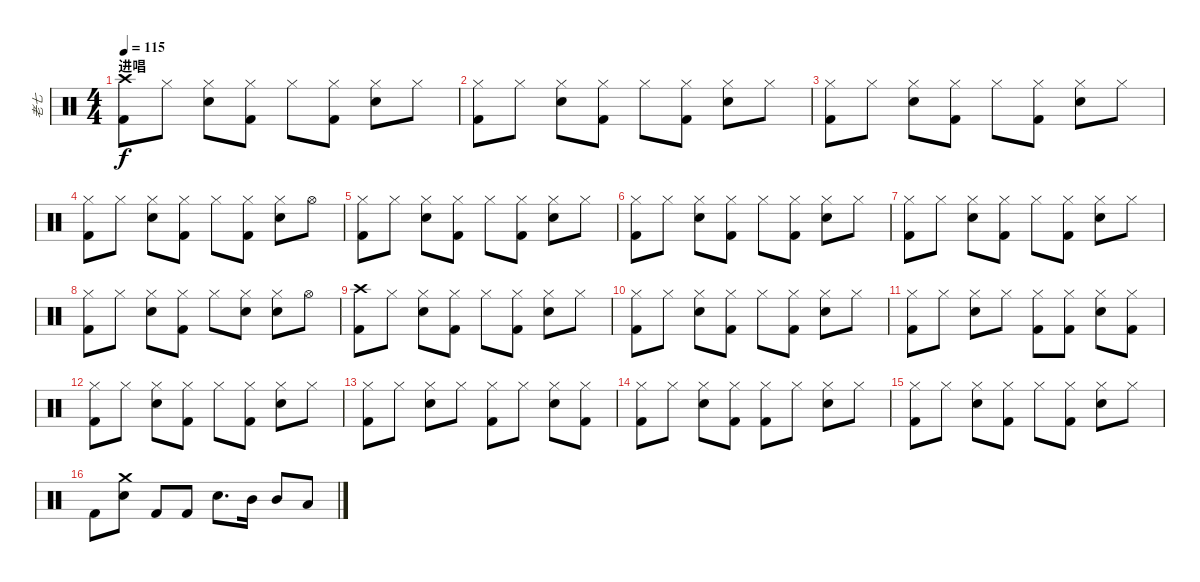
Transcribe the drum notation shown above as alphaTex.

\track ("老七" "老七") {instrument percussion}
\staff {score}
\articulation defaults
\ts (4 4)
\section ("" "进唱")
\tempo 115
\clef neutral
\ks c
("Crash high (hit)" "Kick (hit) 2").8{dy f} "Hi-Hat (closed)".8 ("Hi-Hat (closed)" "Electric Snare (hit)").8 ("Hi-Hat (closed)" "Kick (hit) 2").8 "Hi-Hat (closed)".8 ("Hi-Hat (closed)" "Kick (hit) 2").8 ("Hi-Hat (closed)" "Electric Snare (hit)").8 "Hi-Hat (closed)".8 |
("Hi-Hat (closed)" "Kick (hit) 2").8 "Hi-Hat (closed)".8 ("Hi-Hat (closed)" "Electric Snare (hit)").8 ("Hi-Hat (closed)" "Kick (hit) 2").8 "Hi-Hat (closed)".8 ("Hi-Hat (closed)" "Kick (hit) 2").8 ("Hi-Hat (closed)" "Electric Snare (hit)").8 "Hi-Hat (closed)".8 |
("Hi-Hat (closed)" "Kick (hit) 2").8 "Hi-Hat (closed)".8 ("Hi-Hat (closed)" "Electric Snare (hit)").8 ("Hi-Hat (closed)" "Kick (hit) 2").8 "Hi-Hat (closed)".8 ("Hi-Hat (closed)" "Kick (hit) 2").8 ("Hi-Hat (closed)" "Electric Snare (hit)").8 "Hi-Hat (closed)".8 |
("Hi-Hat (closed)" "Kick (hit) 2").8 "Hi-Hat (closed)".8 ("Hi-Hat (closed)" "Electric Snare (hit)").8 ("Hi-Hat (closed)" "Kick (hit) 2").8 "Hi-Hat (closed)".8 ("Hi-Hat (closed)" "Kick (hit) 2").8 ("Hi-Hat (closed)" "Electric Snare (hit)").8 "Hi-Hat (open)".8 |
("Hi-Hat (closed)" "Kick (hit) 2").8 "Hi-Hat (closed)".8 ("Hi-Hat (closed)" "Electric Snare (hit)").8 ("Hi-Hat (closed)" "Kick (hit) 2").8 "Hi-Hat (closed)".8 ("Hi-Hat (closed)" "Kick (hit) 2").8 ("Hi-Hat (closed)" "Electric Snare (hit)").8 "Hi-Hat (closed)".8 |
("Hi-Hat (closed)" "Kick (hit) 2").8 "Hi-Hat (closed)".8 ("Hi-Hat (closed)" "Electric Snare (hit)").8 ("Hi-Hat (closed)" "Kick (hit) 2").8 "Hi-Hat (closed)".8 ("Hi-Hat (closed)" "Kick (hit) 2").8 ("Hi-Hat (closed)" "Electric Snare (hit)").8 "Hi-Hat (closed)".8 |
("Hi-Hat (closed)" "Kick (hit) 2").8 "Hi-Hat (closed)".8 ("Hi-Hat (closed)" "Electric Snare (hit)").8 ("Hi-Hat (closed)" "Kick (hit) 2").8 "Hi-Hat (closed)".8 ("Hi-Hat (closed)" "Kick (hit) 2").8 ("Hi-Hat (closed)" "Electric Snare (hit)").8 "Hi-Hat (closed)".8 |
("Hi-Hat (closed)" "Kick (hit) 2").8 "Hi-Hat (closed)".8 ("Hi-Hat (closed)" "Electric Snare (hit)").8 ("Hi-Hat (closed)" "Kick (hit) 2").8 "Hi-Hat (closed)".8 ("Hi-Hat (closed)" "Electric Snare (hit)").8 ("Hi-Hat (closed)" "Electric Snare (hit)").8 "Hi-Hat (open)".8 |
("Crash high (hit)" "Kick (hit) 2").8 "Hi-Hat (closed)".8 ("Hi-Hat (closed)" "Electric Snare (hit)").8 ("Hi-Hat (closed)" "Kick (hit) 2").8 "Hi-Hat (closed)".8 ("Hi-Hat (closed)" "Kick (hit) 2").8 ("Hi-Hat (closed)" "Electric Snare (hit)").8 "Hi-Hat (closed)".8 |
("Hi-Hat (closed)" "Kick (hit) 2").8 "Hi-Hat (closed)".8 ("Hi-Hat (closed)" "Electric Snare (hit)").8 ("Hi-Hat (closed)" "Kick (hit) 2").8 "Hi-Hat (closed)".8 ("Hi-Hat (closed)" "Kick (hit) 2").8 ("Hi-Hat (closed)" "Electric Snare (hit)").8 "Hi-Hat (closed)".8 |
("Hi-Hat (closed)" "Kick (hit) 2").8 "Hi-Hat (closed)".8 ("Hi-Hat (closed)" "Electric Snare (hit)").8 "Hi-Hat (closed)".8 ("Hi-Hat (closed)" "Kick (hit) 2").8 ("Hi-Hat (closed)" "Kick (hit) 2").8 ("Hi-Hat (closed)" "Electric Snare (hit)").8 ("Hi-Hat (closed)" "Kick (hit) 2").8 |
("Hi-Hat (closed)" "Kick (hit) 2").8 "Hi-Hat (closed)".8 ("Hi-Hat (closed)" "Electric Snare (hit)").8 ("Hi-Hat (closed)" "Kick (hit) 2").8 "Hi-Hat (closed)".8 ("Hi-Hat (closed)" "Kick (hit) 2").8 ("Hi-Hat (closed)" "Electric Snare (hit)").8 "Hi-Hat (closed)".8 |
("Hi-Hat (closed)" "Kick (hit) 2").8 "Hi-Hat (closed)".8 ("Hi-Hat (closed)" "Electric Snare (hit)").8 "Hi-Hat (closed)".8 ("Hi-Hat (closed)" "Kick (hit) 2").8 "Hi-Hat (closed)".8 ("Hi-Hat (closed)" "Electric Snare (hit)").8 ("Hi-Hat (closed)" "Kick (hit) 2").8 |
("Hi-Hat (closed)" "Kick (hit) 2").8 "Hi-Hat (closed)".8 ("Hi-Hat (closed)" "Electric Snare (hit)").8 ("Hi-Hat (closed)" "Kick (hit) 2").8 ("Hi-Hat (closed)" "Kick (hit) 2").8 "Hi-Hat (closed)".8 ("Hi-Hat (closed)" "Electric Snare (hit)").8 "Hi-Hat (closed)".8 |
("Hi-Hat (closed)" "Kick (hit) 2").8 "Hi-Hat (closed)".8 ("Hi-Hat (closed)" "Electric Snare (hit)").8 ("Hi-Hat (closed)" "Kick (hit) 2").8 "Hi-Hat (closed)".8 ("Hi-Hat (closed)" "Kick (hit) 2").8 ("Hi-Hat (closed)" "Electric Snare (hit)").8 "Hi-Hat (closed)".8 |
"Kick (hit) 2".8 ("Crash medium (hit)" "Electric Snare (hit)").8 "Kick (hit) 2".8 "Kick (hit) 2".8 "Electric Snare (hit)".8{d} "Mid Tom (hit)".16 "Mid Tom (hit)".8 "Low Tom (hit)".8
